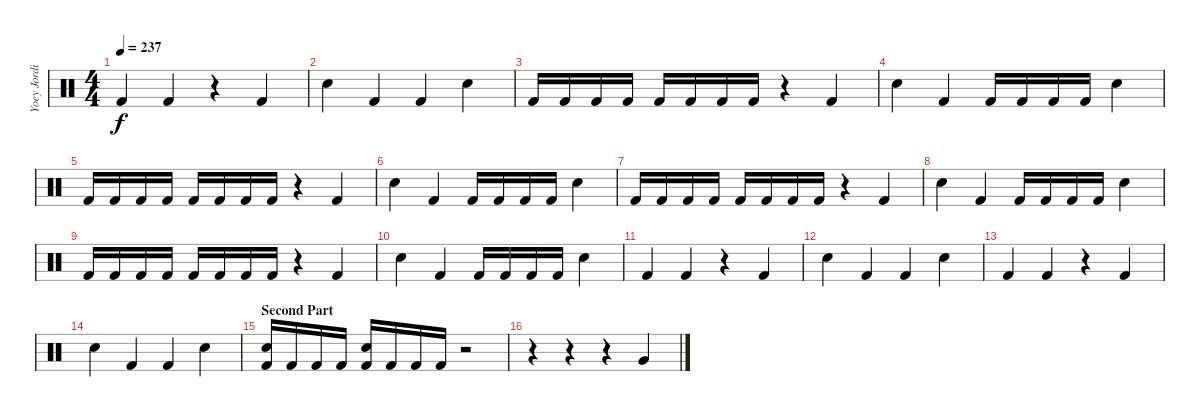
\track ("Yoey Jordison" "Yoey Jordi") {instrument percussion}
\staff {score}
\articulation defaults
\ts (4 4)
\tempo 237
\clef neutral
\ks c "Kick (hit) 2".4{dy f} "Kick (hit) 2".4
r.4 "Kick (hit) 2".4 |
"Electric Snare (hit)".4 "Kick (hit) 2".4 "Kick (hit) 2".4 "Electric Snare (hit)".4 |
"Kick (hit) 2".16 "Kick (hit) 2".16 "Kick (hit) 2".16 "Kick (hit) 2".16 "Kick (hit) 2".16 "Kick (hit) 2".16 "Kick (hit) 2".16 "Kick (hit) 2".16 r.4 "Kick (hit) 2".4 |
"Electric Snare (hit)".4 "Kick (hit) 2".4 "Kick (hit) 2".16 "Kick (hit) 2".16 "Kick (hit) 2".16 "Kick (hit) 2".16 "Electric Snare (hit)".4 |
"Kick (hit) 2".16 "Kick (hit) 2".16 "Kick (hit) 2".16 "Kick (hit) 2".16 "Kick (hit) 2".16 "Kick (hit) 2".16 "Kick (hit) 2".16 "Kick (hit) 2".16 r.4 "Kick (hit) 2".4 |
"Electric Snare (hit)".4 "Kick (hit) 2".4 "Kick (hit) 2".16 "Kick (hit) 2".16 "Kick (hit) 2".16 "Kick (hit) 2".16 "Electric Snare (hit)".4 |
"Kick (hit) 2".16 "Kick (hit) 2".16 "Kick (hit) 2".16 "Kick (hit) 2".16 "Kick (hit) 2".16 "Kick (hit) 2".16 "Kick (hit) 2".16 "Kick (hit) 2".16 r.4 "Kick (hit) 2".4 |
"Electric Snare (hit)".4 "Kick (hit) 2".4 "Kick (hit) 2".16 "Kick (hit) 2".16 "Kick (hit) 2".16 "Kick (hit) 2".16 "Electric Snare (hit)".4 |
"Kick (hit) 2".16 "Kick (hit) 2".16 "Kick (hit) 2".16 "Kick (hit) 2".16 "Kick (hit) 2".16 "Kick (hit) 2".16 "Kick (hit) 2".16 "Kick (hit) 2".16 r.4 "Kick (hit) 2".4 |
"Electric Snare (hit)".4 "Kick (hit) 2".4 "Kick (hit) 2".16 "Kick (hit) 2".16 "Kick (hit) 2".16 "Kick (hit) 2".16 "Electric Snare (hit)".4 |
"Kick (hit) 2".4 "Kick (hit) 2".4 r.4 "Kick (hit) 2".4 |
"Electric Snare (hit)".4 "Kick (hit) 2".4 "Kick (hit) 2".4 "Electric Snare (hit)".4 |
"Kick (hit) 2".4 "Kick (hit) 2".4 r.4 "Kick (hit) 2".4 |
"Electric Snare (hit)".4 "Kick (hit) 2".4 "Kick (hit) 2".4 "Electric Snare (hit)".4 |
\section ("" "Second Part")
("Kick (hit) 2" "Electric Snare (hit)").16 "Kick (hit) 2".16 "Kick (hit) 2".16 "Kick (hit) 2".16 ("Kick (hit) 2" "Electric Snare (hit)").16 "Kick (hit) 2".16 "Kick (hit) 2".16 "Kick (hit) 2".16 r.2 |
r.4 r.4 r.4 "Very Low Tom (hit)".4
